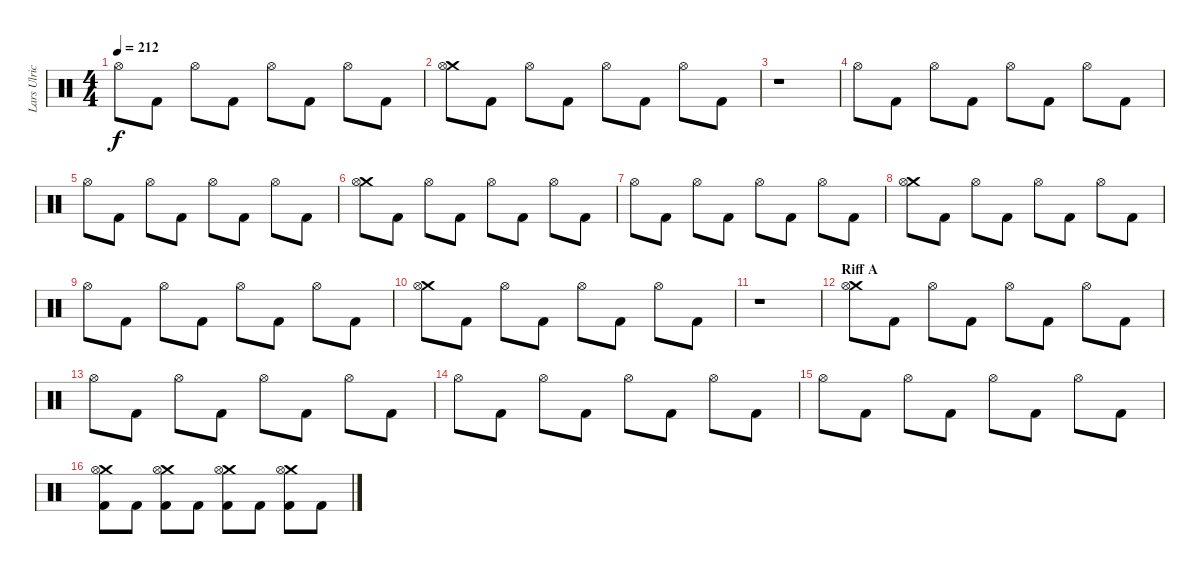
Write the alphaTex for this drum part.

\track ("Lars Ulrich" "Lars Ulric") {instrument percussion}
\staff {score}
\articulation defaults
\ts (4 4)
\tempo 212
\clef neutral
\ks c "Hi-Hat (open)".8{dy f} "Kick (hit) 2".8 "Hi-Hat (open)".8 "Kick (hit) 2".8 "Hi-Hat (open)".8 "Kick (hit) 2".8 "Hi-Hat (open)".8 "Kick (hit) 2".8
|
("Crash medium (hit)" "Hi-Hat (open)").8 "Kick (hit) 2".8 "Hi-Hat (open)".8 "Kick (hit) 2".8 "Hi-Hat (open)".8 "Kick (hit) 2".8 "Hi-Hat (open)".8 "Kick (hit) 2".8 |
r.1 |
"Hi-Hat (open)".8 "Kick (hit) 2".8 "Hi-Hat (open)".8 "Kick (hit) 2".8 "Hi-Hat (open)".8 "Kick (hit) 2".8 "Hi-Hat (open)".8 "Kick (hit) 2".8 |
"Hi-Hat (open)".8 "Kick (hit) 2".8 "Hi-Hat (open)".8 "Kick (hit) 2".8 "Hi-Hat (open)".8 "Kick (hit) 2".8 "Hi-Hat (open)".8 "Kick (hit) 2".8 |
("Crash medium (hit)" "Hi-Hat (open)").8 "Kick (hit) 2".8 "Hi-Hat (open)".8 "Kick (hit) 2".8 "Hi-Hat (open)".8 "Kick (hit) 2".8 "Hi-Hat (open)".8 "Kick (hit) 2".8 |
"Hi-Hat (open)".8 "Kick (hit) 2".8 "Hi-Hat (open)".8 "Kick (hit) 2".8 "Hi-Hat (open)".8 "Kick (hit) 2".8 "Hi-Hat (open)".8 "Kick (hit) 2".8 |
("Crash medium (hit)" "Hi-Hat (open)").8 "Kick (hit) 2".8 "Hi-Hat (open)".8 "Kick (hit) 2".8 "Hi-Hat (open)".8 "Kick (hit) 2".8 "Hi-Hat (open)".8 "Kick (hit) 2".8 |
"Hi-Hat (open)".8 "Kick (hit) 2".8 "Hi-Hat (open)".8 "Kick (hit) 2".8 "Hi-Hat (open)".8 "Kick (hit) 2".8 "Hi-Hat (open)".8 "Kick (hit) 2".8 |
("Crash medium (hit)" "Hi-Hat (open)").8 "Kick (hit) 2".8 "Hi-Hat (open)".8 "Kick (hit) 2".8 "Hi-Hat (open)".8 "Kick (hit) 2".8 "Hi-Hat (open)".8 "Kick (hit) 2".8 |
r.1 |
\section ("" "Riff A")
("Crash medium (hit)" "Hi-Hat (open)").8 "Kick (hit) 2".8 "Hi-Hat (open)".8 "Kick (hit) 2".8 "Hi-Hat (open)".8 "Kick (hit) 2".8 "Hi-Hat (open)".8 "Kick (hit) 2".8 |
"Hi-Hat (open)".8 "Kick (hit) 2".8 "Hi-Hat (open)".8 "Kick (hit) 2".8 "Hi-Hat (open)".8 "Kick (hit) 2".8 "Hi-Hat (open)".8 "Kick (hit) 2".8 |
"Hi-Hat (open)".8 "Kick (hit) 2".8 "Hi-Hat (open)".8 "Kick (hit) 2".8 "Hi-Hat (open)".8 "Kick (hit) 2".8 "Hi-Hat (open)".8 "Kick (hit) 2".8 |
"Hi-Hat (open)".8 "Kick (hit) 2".8 "Hi-Hat (open)".8 "Kick (hit) 2".8 "Hi-Hat (open)".8 "Kick (hit) 2".8 "Hi-Hat (open)".8 "Kick (hit) 2".8 |
("Crash medium (hit)" "Hi-Hat (open)" "Kick (hit) 2").8 "Kick (hit) 2".8 ("Crash medium (hit)" "Hi-Hat (open)" "Kick (hit) 2").8 "Kick (hit) 2".8 ("Crash medium (hit)" "Hi-Hat (open)" "Kick (hit) 2").8 "Kick (hit) 2".8 ("Crash medium (hit)" "Hi-Hat (open)" "Kick (hit) 2").8 "Kick (hit) 2".8
